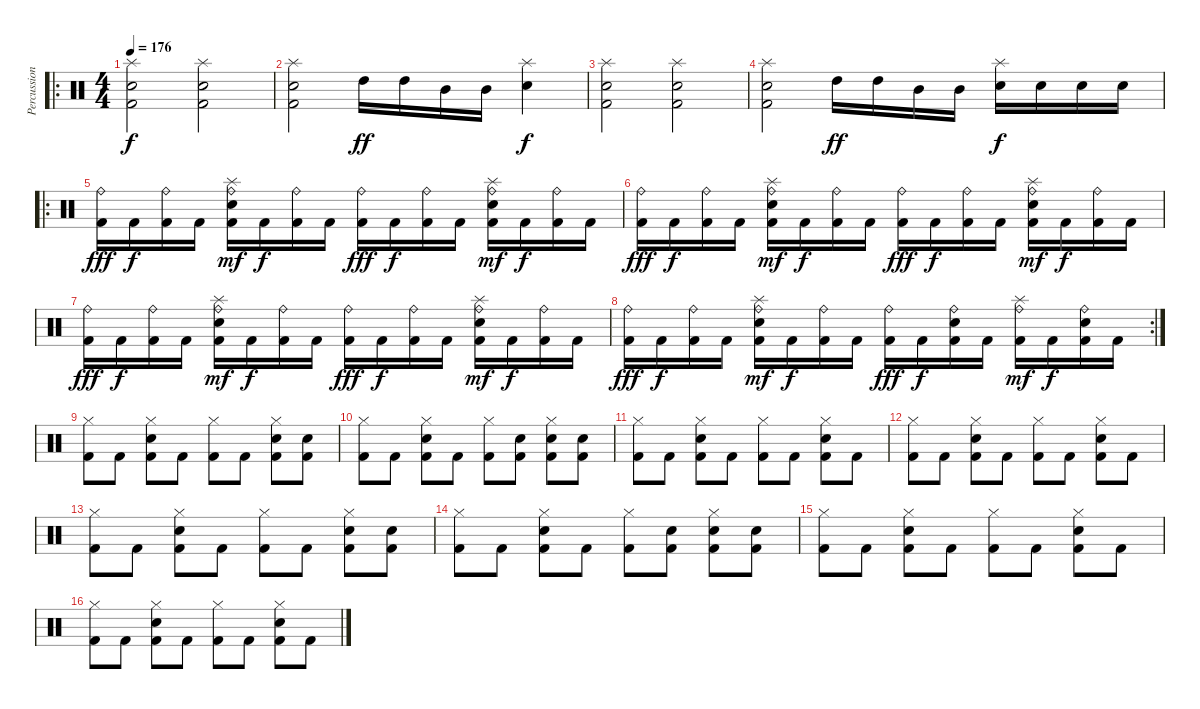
\track ("Percussion" "Percussion") {instrument percussion}
\staff {score}
\articulation defaults
\ro
\ts (4 4)
\tempo 176
\clef neutral
\ks c
("Splash (hit)" "Snare (hit) 2" "Kick (hit) 2").2{dy f} ("Splash (hit)" "Snare (hit) 2" "Kick (hit) 2").2 |
("Splash (hit)" "Snare (hit) 2" "Kick (hit) 2").2 "High Tom (hit)".16{dy ff} "High Tom (hit)".16 "Mid Tom (hit)".16 "Mid Tom (hit)".16 ("Splash (hit)" "Electric Snare (hit)").4{dy f} |
("Splash (hit)" "Snare (hit) 2" "Kick (hit) 2").2 ("Splash (hit)" "Snare (hit) 2" "Kick (hit) 2").2 |
("Splash (hit)" "Snare (hit) 2" "Kick (hit) 2").2 "High Tom (hit)".16{dy ff} "High Tom (hit)".16 "Mid Tom (hit)".16 "Mid Tom (hit)".16 ("Splash (hit)" "Electric Snare (hit)").16{dy f} "Electric Snare (hit)".16 "Electric Snare (hit)".16 "Electric Snare (hit)".16 |
\ro
("Ride (bell)" "Kick (hit) 2").16{dy fff} "Kick (hit) 2".16{dy f} ("Ride (bell)" "Kick (hit) 2").16 "Kick (hit) 2".16 ("Splash (hit)" "Ride (bell)" "Snare (hit) 2" "Kick (hit) 2").16{dy mf} "Kick (hit) 2".16{dy f} ("Ride (bell)" "Kick (hit) 2").16 "Kick (hit) 2".16 ("Ride (bell)" "Kick (hit) 2").16{dy fff} "Kick (hit) 2".16{dy f} ("Ride (bell)" "Kick (hit) 2").16 "Kick (hit) 2".16 ("Splash (hit)" "Ride (bell)" "Snare (hit) 2" "Kick (hit) 2").16{dy mf} "Kick (hit) 2".16{dy f} ("Ride (bell)" "Kick (hit) 2").16 "Kick (hit) 2".16 |
("Ride (bell)" "Kick (hit) 2").16{dy fff} "Kick (hit) 2".16{dy f} ("Ride (bell)" "Kick (hit) 2").16 "Kick (hit) 2".16 ("Splash (hit)" "Ride (bell)" "Snare (hit) 2" "Kick (hit) 2").16{dy mf} "Kick (hit) 2".16{dy f} ("Ride (bell)" "Kick (hit) 2").16 "Kick (hit) 2".16 ("Ride (bell)" "Kick (hit) 2").16{dy fff} "Kick (hit) 2".16{dy f} ("Ride (bell)" "Kick (hit) 2").16 "Kick (hit) 2".16 ("Splash (hit)" "Ride (bell)" "Snare (hit) 2" "Kick (hit) 2").16{dy mf} "Kick (hit) 2".16{dy f} ("Ride (bell)" "Kick (hit) 2").16 "Kick (hit) 2".16 |
("Ride (bell)" "Kick (hit) 2").16{dy fff} "Kick (hit) 2".16{dy f} ("Ride (bell)" "Kick (hit) 2").16 "Kick (hit) 2".16 ("Splash (hit)" "Ride (bell)" "Snare (hit) 2" "Kick (hit) 2").16{dy mf} "Kick (hit) 2".16{dy f} ("Ride (bell)" "Kick (hit) 2").16 "Kick (hit) 2".16 ("Ride (bell)" "Kick (hit) 2").16{dy fff} "Kick (hit) 2".16{dy f} ("Ride (bell)" "Kick (hit) 2").16 "Kick (hit) 2".16 ("Splash (hit)" "Ride (bell)" "Snare (hit) 2" "Kick (hit) 2").16{dy mf} "Kick (hit) 2".16{dy f} ("Ride (bell)" "Kick (hit) 2").16 "Kick (hit) 2".16 |
\rc 2
("Ride (bell)" "Kick (hit) 2").16{dy fff} "Kick (hit) 2".16{dy f} ("Ride (bell)" "Kick (hit) 2").16 "Kick (hit) 2".16 ("Splash (hit)" "Ride (bell)" "Snare (hit) 2" "Kick (hit) 2").16{dy mf} "Kick (hit) 2".16{dy f} ("Ride (bell)" "Kick (hit) 2").16 "Kick (hit) 2".16 ("Ride (bell)" "Kick (hit) 2").16{dy fff} "Kick (hit) 2".16{dy f} ("Ride (bell)" "Snare (hit) 2" "Kick (hit) 2").16 "Kick (hit) 2".16 ("Splash (hit)" "Ride (bell)" "Kick (hit) 2").16{dy mf} "Kick (hit) 2".16{dy f} ("Ride (bell)" "Snare (hit) 2" "Kick (hit) 2").16 "Kick (hit) 2".16 |
("Hi-Hat (closed)" "Kick (hit) 2").8 "Kick (hit) 2".8 ("Hi-Hat (closed)" "Snare (hit) 2" "Kick (hit) 2").8 "Kick (hit) 2".8 ("Hi-Hat (closed)" "Kick (hit) 2").8 "Kick (hit) 2".8 ("Hi-Hat (closed)" "Snare (hit) 2" "Kick (hit) 2").8 ("Snare (hit) 2" "Kick (hit) 2").8 |
("Hi-Hat (closed)" "Kick (hit) 2").8 "Kick (hit) 2".8 ("Hi-Hat (closed)" "Snare (hit) 2" "Kick (hit) 2").8 "Kick (hit) 2".8 ("Hi-Hat (closed)" "Kick (hit) 2").8 ("Snare (hit) 2" "Kick (hit) 2").8 ("Hi-Hat (closed)" "Snare (hit) 2" "Kick (hit) 2").8 ("Snare (hit) 2" "Kick (hit) 2").8 |
("Hi-Hat (closed)" "Kick (hit) 2").8 "Kick (hit) 2".8 ("Hi-Hat (closed)" "Snare (hit) 2" "Kick (hit) 2").8 "Kick (hit) 2".8 ("Hi-Hat (closed)" "Kick (hit) 2").8 "Kick (hit) 2".8 ("Hi-Hat (closed)" "Snare (hit) 2" "Kick (hit) 2").8 "Kick (hit) 2".8 |
("Hi-Hat (closed)" "Kick (hit) 2").8 "Kick (hit) 2".8 ("Hi-Hat (closed)" "Snare (hit) 2" "Kick (hit) 2").8 "Kick (hit) 2".8 ("Hi-Hat (closed)" "Kick (hit) 2").8 "Kick (hit) 2".8 ("Hi-Hat (closed)" "Snare (hit) 2" "Kick (hit) 2").8 "Kick (hit) 2".8 |
("Hi-Hat (closed)" "Kick (hit) 2").8 "Kick (hit) 2".8 ("Hi-Hat (closed)" "Snare (hit) 2" "Kick (hit) 2").8 "Kick (hit) 2".8 ("Hi-Hat (closed)" "Kick (hit) 2").8 "Kick (hit) 2".8 ("Hi-Hat (closed)" "Snare (hit) 2" "Kick (hit) 2").8 ("Snare (hit) 2" "Kick (hit) 2").8 |
("Hi-Hat (closed)" "Kick (hit) 2").8 "Kick (hit) 2".8 ("Hi-Hat (closed)" "Snare (hit) 2" "Kick (hit) 2").8 "Kick (hit) 2".8 ("Hi-Hat (closed)" "Kick (hit) 2").8 ("Snare (hit) 2" "Kick (hit) 2").8 ("Hi-Hat (closed)" "Snare (hit) 2" "Kick (hit) 2").8 ("Snare (hit) 2" "Kick (hit) 2").8 |
("Hi-Hat (closed)" "Kick (hit) 2").8 "Kick (hit) 2".8 ("Hi-Hat (closed)" "Snare (hit) 2" "Kick (hit) 2").8 "Kick (hit) 2".8 ("Hi-Hat (closed)" "Kick (hit) 2").8 "Kick (hit) 2".8 ("Hi-Hat (closed)" "Snare (hit) 2" "Kick (hit) 2").8 "Kick (hit) 2".8 |
("Hi-Hat (closed)" "Kick (hit) 2").8 "Kick (hit) 2".8 ("Hi-Hat (closed)" "Snare (hit) 2" "Kick (hit) 2").8 "Kick (hit) 2".8 ("Hi-Hat (closed)" "Kick (hit) 2").8 "Kick (hit) 2".8 ("Hi-Hat (closed)" "Snare (hit) 2" "Kick (hit) 2").8 "Kick (hit) 2".8
